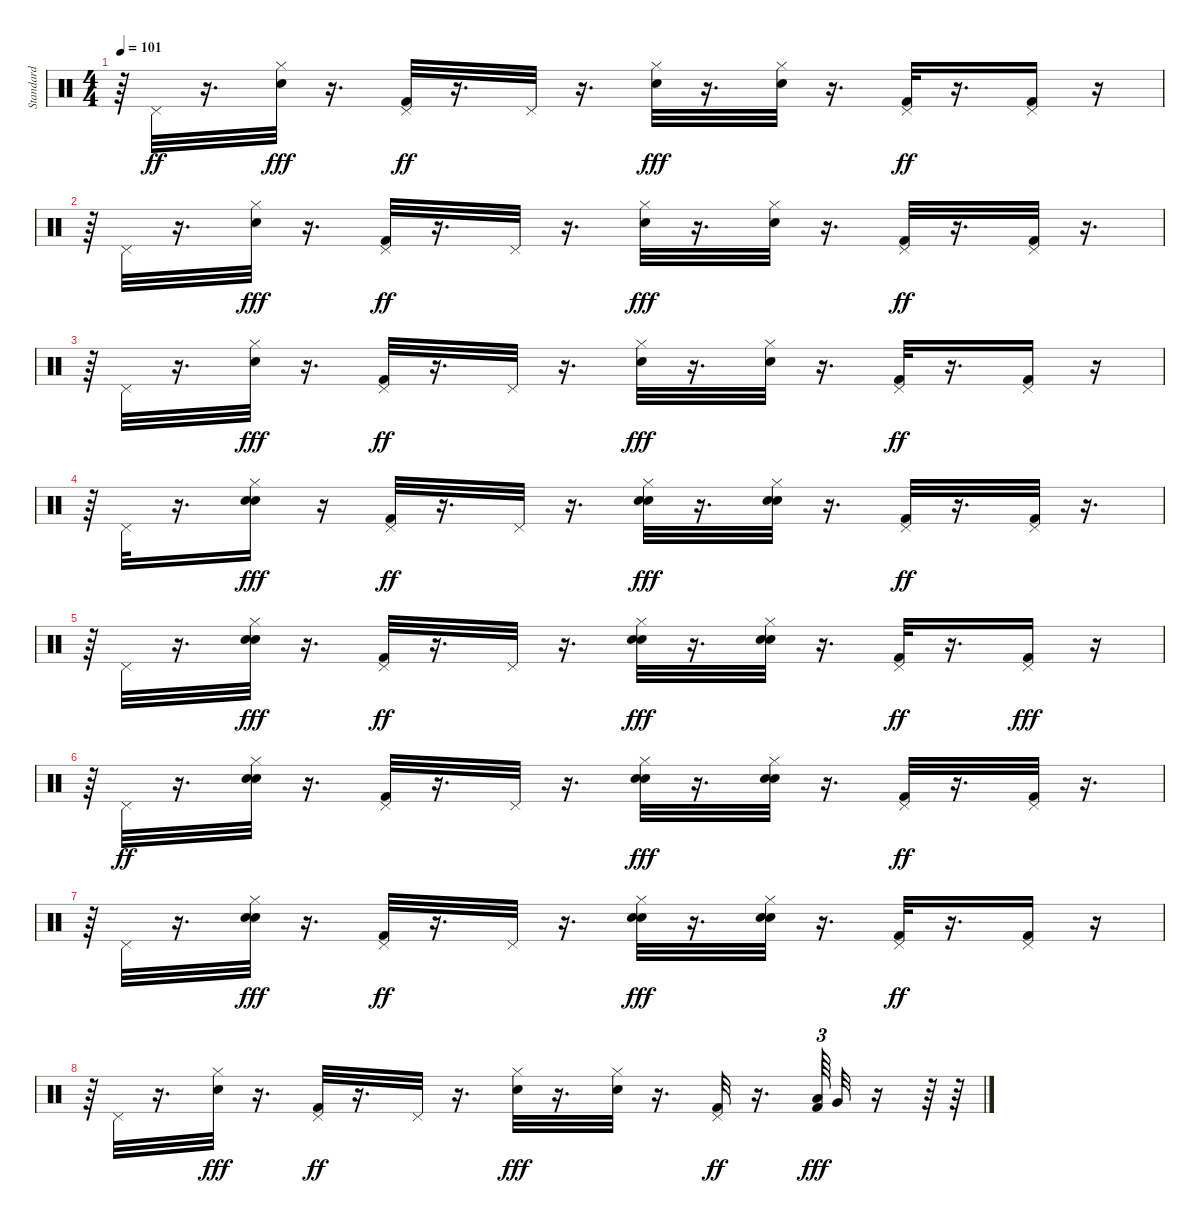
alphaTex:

\track (" Standard" " Standard") {instrument percussion}
\staff {score}
\articulation defaults
\ts (4 4)
\tempo 101
\clef neutral
\ks c
r.64{dy ff} "Pedal Hi-Hat (hit)".32 r.16{d} ("Hi-Hat (closed)" "Electric Snare (hit)").32{dy fff} r.16{d} ("Kick (hit) 2" "Pedal Hi-Hat (hit)").32{dy ff} r.16{d} "Pedal Hi-Hat (hit)".32 r.16{d} ("Hi-Hat (closed)" "Electric Snare (hit)").32{dy fff} r.16{d} ("Electric Snare (hit)" "Hi-Hat (closed)").32 r.16{d} ("Kick (hit) 2" "Pedal Hi-Hat (hit)").32{dy ff} r.16{d} ("Kick (hit) 2" "Pedal Hi-Hat (hit)").16 r.16 |
r.64 "Pedal Hi-Hat (hit)".32 r.16{d} ("Hi-Hat (closed)" "Electric Snare (hit)").32{dy fff} r.16{d} ("Kick (hit) 2" "Pedal Hi-Hat (hit)").32{dy ff} r.16{d} "Pedal Hi-Hat (hit)".32 r.16{d} ("Electric Snare (hit)" "Hi-Hat (closed)").32{dy fff} r.16{d} ("Electric Snare (hit)" "Hi-Hat (closed)").32 r.16{d} ("Kick (hit) 2" "Pedal Hi-Hat (hit)").32{dy ff} r.16{d} ("Kick (hit) 2" "Pedal Hi-Hat (hit)").32 r.16{d} |
r.64 "Pedal Hi-Hat (hit)".32 r.16{d} ("Electric Snare (hit)" "Hi-Hat (closed)").32{dy fff} r.16{d} ("Kick (hit) 2" "Pedal Hi-Hat (hit)").32{dy ff} r.16{d} "Pedal Hi-Hat (hit)".32 r.16{d} ("Hi-Hat (closed)" "Electric Snare (hit)").32{dy fff} r.16{d} ("Electric Snare (hit)" "Hi-Hat (closed)").32 r.16{d} ("Kick (hit) 2" "Pedal Hi-Hat (hit)").32{dy ff} r.16{d} ("Kick (hit) 2" "Pedal Hi-Hat (hit)").16 r.16 |
r.64 "Pedal Hi-Hat (hit)".32 r.16{d} ("Hand Clap (hit)" "Hi-Hat (closed)" "Electric Snare (hit)").16{dy fff} r.16 ("Kick (hit) 2" "Pedal Hi-Hat (hit)").32{dy ff} r.16{d} "Pedal Hi-Hat (hit)".32 r.16{d} ("Electric Snare (hit)" "Hi-Hat (closed)" "Hand Clap (hit)").32{dy fff} r.16{d} ("Hand Clap (hit)" "Electric Snare (hit)" "Hi-Hat (closed)").32 r.16{d} ("Kick (hit) 2" "Pedal Hi-Hat (hit)").32{dy ff} r.16{d} ("Kick (hit) 2" "Pedal Hi-Hat (hit)").32 r.16{d} |
r.64 "Pedal Hi-Hat (hit)".32 r.16{d} ("Hand Clap (hit)" "Electric Snare (hit)" "Hi-Hat (closed)").32{dy fff} r.16{d} ("Kick (hit) 2" "Pedal Hi-Hat (hit)").32{dy ff} r.16{d} "Pedal Hi-Hat (hit)".32 r.16{d} ("Hi-Hat (closed)" "Electric Snare (hit)" "Hand Clap (hit)").32{dy fff} r.16{d} ("Electric Snare (hit)" "Hi-Hat (closed)" "Hand Clap (hit)").32 r.16{d} ("Kick (hit) 2" "Pedal Hi-Hat (hit)").32{dy ff} r.16{d} ("Pedal Hi-Hat (hit)" "Kick (hit) 2").16{dy fff} r.16 |
r.64 "Pedal Hi-Hat (hit)".32{dy ff} r.16{d} ("Hand Clap (hit)" "Electric Snare (hit)" "Hi-Hat (closed)").32 r.16{d} ("Kick (hit) 2" "Pedal Hi-Hat (hit)").32 r.16{d} "Pedal Hi-Hat (hit)".32 r.16{d} ("Hand Clap (hit)" "Electric Snare (hit)" "Hi-Hat (closed)").32{dy fff} r.16{d} ("Hand Clap (hit)" "Electric Snare (hit)" "Hi-Hat (closed)").32 r.16{d} ("Kick (hit) 2" "Pedal Hi-Hat (hit)").32{dy ff} r.16{d} ("Kick (hit) 2" "Pedal Hi-Hat (hit)").32 r.16{d} |
r.64 "Pedal Hi-Hat (hit)".32 r.16{d} ("Electric Snare (hit)" "Hi-Hat (closed)" "Hand Clap (hit)").32{dy fff} r.16{d} ("Kick (hit) 2" "Pedal Hi-Hat (hit)").32{dy ff} r.16{d} "Pedal Hi-Hat (hit)".32 r.16{d} ("Hi-Hat (closed)" "Electric Snare (hit)" "Hand Clap (hit)").32{dy fff} r.16{d} ("Hand Clap (hit)" "Electric Snare (hit)" "Hi-Hat (closed)").32 r.16{d} ("Kick (hit) 2" "Pedal Hi-Hat (hit)").32{dy ff} r.16{d} ("Kick (hit) 2" "Pedal Hi-Hat (hit)").16 r.16 |
r.64 "Pedal Hi-Hat (hit)".32 r.16{d} ("Hi-Hat (closed)" "Electric Snare (hit)").32{dy fff} r.16{d} ("Kick (hit) 2" "Pedal Hi-Hat (hit)").32{dy ff} r.16{d} "Pedal Hi-Hat (hit)".32 r.16{d} ("Electric Snare (hit)" "Hi-Hat (closed)").32{dy fff} r.16{d} ("Electric Snare (hit)" "Hi-Hat (closed)").32 r.16{d} ("Kick (hit) 2" "Pedal Hi-Hat (hit)").32{dy ff} r.16{d} ("Low Tom (hit)" "Kick (hit) 2").64{tu (3 2) dy fff} "Very Low Tom (hit)".32 r.16 r.64 r.64
